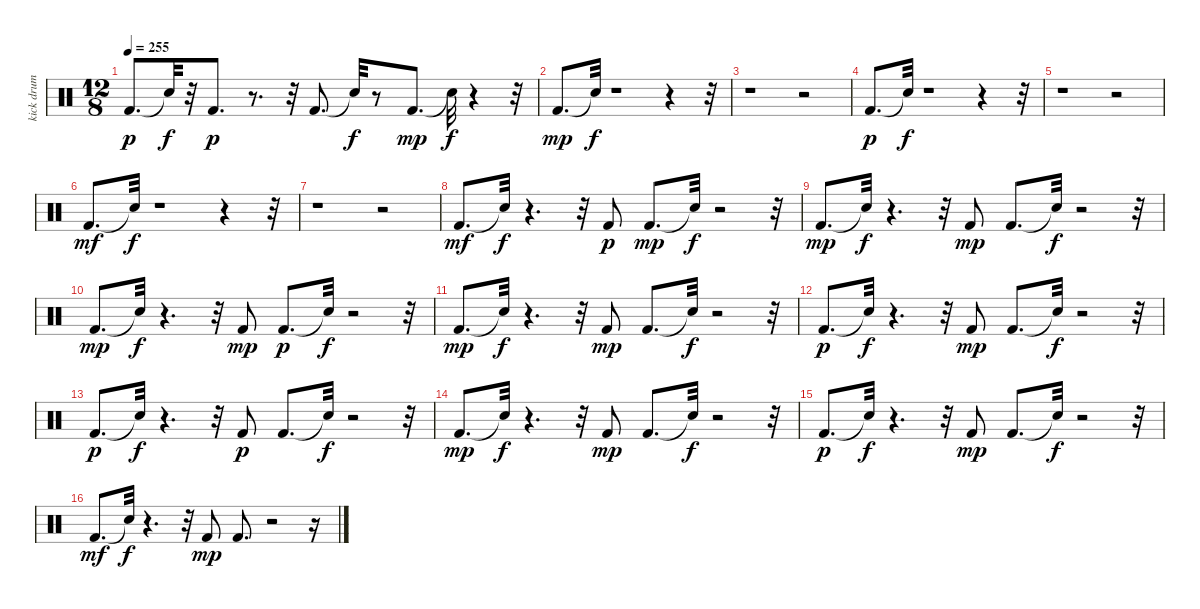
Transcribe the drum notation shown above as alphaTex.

\track ("kick drum           " "kick drum ") {instrument percussion}
\staff {score}
\articulation defaults
\ts (12 8)
\tempo 255
\clef neutral
\ks c "Kick (hit) 2".8{d dy p} "Snare (hit)"{t}.32{dy f}
r.32 "Kick (hit) 2".8{d dy p} r.8{d} r.32 "Kick (hit) 2".8{d} "Snare (hit)"{t}.32{dy f} r.8 "Kick (hit) 2".8{d dy mp} "Snare (hit)"{t}.32{dy f} r.4 r.32 |
"Kick (hit) 2".8{d dy mp} "Snare (hit)"{t}.32{dy f} r.1 r.4 r.32 |
r.1 r.2 |
"Kick (hit) 2".8{d dy p} "Snare (hit)"{t}.32{dy f} r.1 r.4 r.32 |
r.1 r.2 |
"Kick (hit) 2".8{d dy mf} "Snare (hit)"{t}.32{dy f} r.1 r.4 r.32 |
r.1 r.2 |
"Kick (hit) 2".8{d dy mf} "Snare (hit)"{t}.32{dy f} r.4{d} r.32 "Kick (hit) 2".8{dy p} "Kick (hit) 2".8{d dy mp} "Snare (hit)"{t}.32{dy f} r.2 r.32 |
"Kick (hit) 2".8{d dy mp} "Snare (hit)"{t}.32{dy f} r.4{d} r.32 "Kick (hit) 2".8{dy mp} "Kick (hit) 2".8{d} "Snare (hit)"{t}.32{dy f} r.2 r.32 |
"Kick (hit) 2".8{d dy mp} "Snare (hit)"{t}.32{dy f} r.4{d} r.32 "Kick (hit) 2".8{dy mp} "Kick (hit) 2".8{d dy p} "Snare (hit)"{t}.32{dy f} r.2 r.32 |
"Kick (hit) 2".8{d dy mp} "Snare (hit)"{t}.32{dy f} r.4{d} r.32 "Kick (hit) 2".8{dy mp} "Kick (hit) 2".8{d} "Snare (hit)"{t}.32{dy f} r.2 r.32 |
"Kick (hit) 2".8{d dy p} "Snare (hit)"{t}.32{dy f} r.4{d} r.32 "Kick (hit) 2".8{dy mp} "Kick (hit) 2".8{d} "Snare (hit)"{t}.32{dy f} r.2 r.32 |
"Kick (hit) 2".8{d dy p} "Snare (hit)"{t}.32{dy f} r.4{d} r.32 "Kick (hit) 2".8{dy p} "Kick (hit) 2".8{d} "Snare (hit)"{t}.32{dy f} r.2 r.32 |
"Kick (hit) 2".8{d dy mp} "Snare (hit)"{t}.32{dy f} r.4{d} r.32 "Kick (hit) 2".8{dy mp} "Kick (hit) 2".8{d} "Snare (hit)"{t}.32{dy f} r.2 r.32 |
"Kick (hit) 2".8{d dy p} "Snare (hit)"{t}.32{dy f} r.4{d} r.32 "Kick (hit) 2".8{dy mp} "Kick (hit) 2".8{d} "Snare (hit)"{t}.32{dy f} r.2 r.32 |
"Kick (hit) 2".8{d dy mf} "Snare (hit)"{t}.32{dy f} r.4{d} r.32 "Kick (hit) 2".8{dy mp} "Kick (hit) 2".8{d} r.2 r.16
